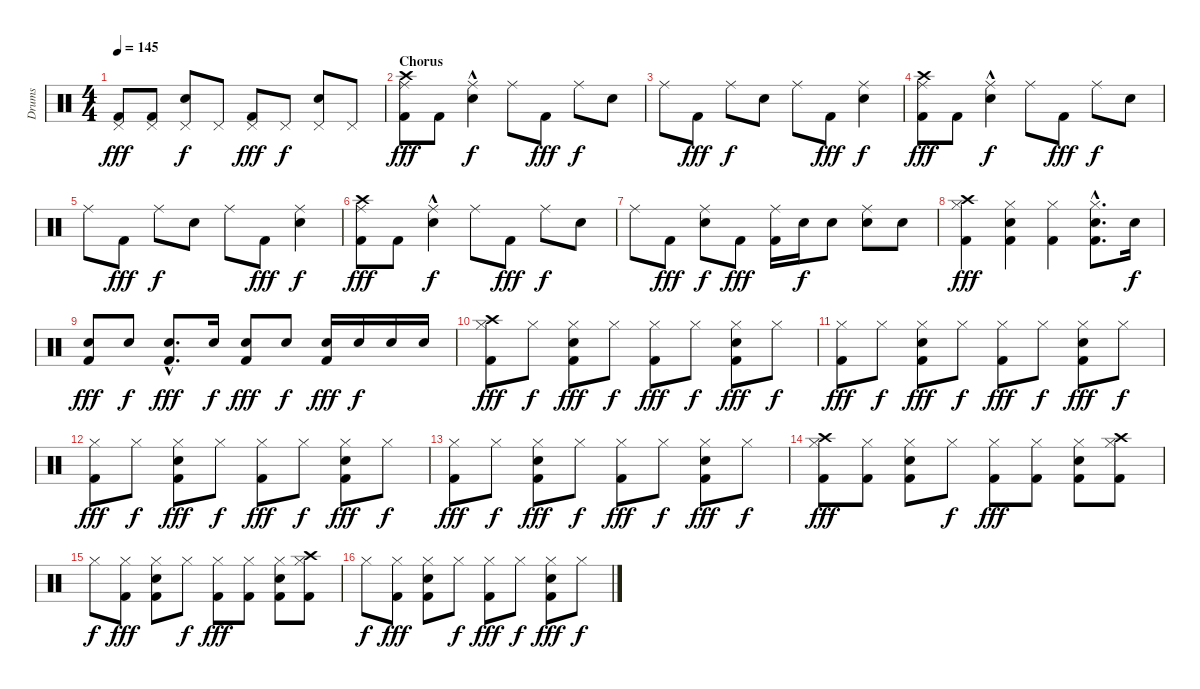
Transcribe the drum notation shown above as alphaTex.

\track ("Drums" "Drums") {instrument percussion}
\staff {score}
\articulation defaults
\ts (4 4)
\tempo 145
\clef neutral
\ks c
("Pedal Hi-Hat (hit)" "Kick (hit) 2").8{dy fff} ("Pedal Hi-Hat (hit)" "Kick (hit) 2").8 ("Pedal Hi-Hat (hit)" "Electric Snare (hit)").8{dy f} "Pedal Hi-Hat (hit)".8 ("Pedal Hi-Hat (hit)" "Kick (hit) 2").8{dy fff} "Pedal Hi-Hat (hit)".8{dy f} ("Pedal Hi-Hat (hit)" "Electric Snare (hit)").8 "Pedal Hi-Hat (hit)".8 |
\section ("" "Chorus")
("Crash high (hit)" "Ride (middle)" "Kick (hit) 2").8{dy fff} "Kick (hit) 2".8 ("Ride (middle)" "Electric Snare (hit)"{hac}).4{dy f} "Ride (middle)".8 "Kick (hit) 2".8{dy fff} "Ride (middle)".8{dy f} "Electric Snare (hit)".8 |
"Ride (middle)".8 "Kick (hit) 2".8{dy fff} "Ride (middle)".8{dy f} "Electric Snare (hit)".8 "Ride (middle)".8 "Kick (hit) 2".8{dy fff} ("Ride (middle)" "Electric Snare (hit)").4{dy f} |
("Crash high (hit)" "Ride (middle)" "Kick (hit) 2").8{dy fff} "Kick (hit) 2".8 ("Ride (middle)" "Electric Snare (hit)"{hac}).4{dy f} "Ride (middle)".8 "Kick (hit) 2".8{dy fff} "Ride (middle)".8{dy f} "Electric Snare (hit)".8 |
"Ride (middle)".8 "Kick (hit) 2".8{dy fff} "Ride (middle)".8{dy f} "Electric Snare (hit)".8 "Ride (middle)".8 "Kick (hit) 2".8{dy fff} ("Ride (middle)" "Electric Snare (hit)").4{dy f} |
("Crash high (hit)" "Ride (middle)" "Kick (hit) 2").8{dy fff} "Kick (hit) 2".8 ("Ride (middle)" "Electric Snare (hit)"{hac}).4{dy f} "Ride (middle)".8 "Kick (hit) 2".8{dy fff} "Ride (middle)".8{dy f} "Electric Snare (hit)".8 |
"Ride (middle)".8 "Kick (hit) 2".8{dy fff} ("Ride (middle)" "Electric Snare (hit)").8{dy f} "Kick (hit) 2".8{dy fff} ("Ride (middle)" "Kick (hit) 2").16 "Electric Snare (hit)".16{dy f} "Electric Snare (hit)".8 ("Ride (middle)" "Electric Snare (hit)").8 "Electric Snare (hit)".8 |
("Crash high (hit)" "Hi-Hat (closed)" "Kick (hit) 2").4{dy fff} ("Hi-Hat (closed)" "Electric Snare (hit)" "Kick (hit) 2").4 ("Hi-Hat (closed)" "Kick (hit) 2").4 ("Hi-Hat (closed)" "Electric Snare (hit)"{hac} "Kick (hit) 2"{hac}).8{d} "Electric Snare (hit)".16{dy f} |
("Electric Snare (hit)" "Kick (hit) 2").8{dy fff} "Electric Snare (hit)".8{dy f} ("Electric Snare (hit)"{hac} "Kick (hit) 2"{hac}).8{d dy fff} "Electric Snare (hit)".16{dy f} ("Electric Snare (hit)" "Kick (hit) 2").8{dy fff} "Electric Snare (hit)".8{dy f} ("Electric Snare (hit)" "Kick (hit) 2").16{dy fff} "Electric Snare (hit)".16{dy f} "Electric Snare (hit)".16 "Electric Snare (hit)".16 |
("Crash high (hit)" "Hi-Hat (closed)" "Kick (hit) 2").8{dy fff} "Hi-Hat (closed)".8{dy f} ("Hi-Hat (closed)" "Electric Snare (hit)" "Kick (hit) 2").8{dy fff} "Hi-Hat (closed)".8{dy f} ("Hi-Hat (closed)" "Kick (hit) 2").8{dy fff} "Hi-Hat (closed)".8{dy f} ("Hi-Hat (closed)" "Electric Snare (hit)" "Kick (hit) 2").8{dy fff} "Hi-Hat (closed)".8{dy f} |
("Hi-Hat (closed)" "Kick (hit) 2").8{dy fff} "Hi-Hat (closed)".8{dy f} ("Hi-Hat (closed)" "Electric Snare (hit)" "Kick (hit) 2").8{dy fff} "Hi-Hat (closed)".8{dy f} ("Hi-Hat (closed)" "Kick (hit) 2").8{dy fff} "Hi-Hat (closed)".8{dy f} ("Hi-Hat (closed)" "Electric Snare (hit)" "Kick (hit) 2").8{dy fff} "Hi-Hat (closed)".8{dy f} |
("Hi-Hat (closed)" "Kick (hit) 2").8{dy fff} "Hi-Hat (closed)".8{dy f} ("Hi-Hat (closed)" "Electric Snare (hit)" "Kick (hit) 2").8{dy fff} "Hi-Hat (closed)".8{dy f} ("Hi-Hat (closed)" "Kick (hit) 2").8{dy fff} "Hi-Hat (closed)".8{dy f} ("Hi-Hat (closed)" "Electric Snare (hit)" "Kick (hit) 2").8{dy fff} "Hi-Hat (closed)".8{dy f} |
("Hi-Hat (closed)" "Kick (hit) 2").8{dy fff} "Hi-Hat (closed)".8{dy f} ("Hi-Hat (closed)" "Electric Snare (hit)" "Kick (hit) 2").8{dy fff} "Hi-Hat (closed)".8{dy f} ("Hi-Hat (closed)" "Kick (hit) 2").8{dy fff} "Hi-Hat (closed)".8{dy f} ("Hi-Hat (closed)" "Electric Snare (hit)" "Kick (hit) 2").8{dy fff} "Hi-Hat (closed)".8{dy f} |
("Crash high (hit)" "Hi-Hat (closed)" "Kick (hit) 2").8{dy fff} ("Hi-Hat (closed)" "Kick (hit) 2").8 ("Hi-Hat (closed)" "Electric Snare (hit)" "Kick (hit) 2").8 "Hi-Hat (closed)".8{dy f} ("Hi-Hat (closed)" "Kick (hit) 2").8{dy fff} ("Hi-Hat (closed)" "Kick (hit) 2").8 ("Hi-Hat (closed)" "Electric Snare (hit)" "Kick (hit) 2").8 ("Crash high (hit)" "Hi-Hat (closed)" "Kick (hit) 2").8 |
"Hi-Hat (closed)".8{dy f} ("Hi-Hat (closed)" "Kick (hit) 2").8{dy fff} ("Hi-Hat (closed)" "Electric Snare (hit)" "Kick (hit) 2").8 "Hi-Hat (closed)".8{dy f} ("Hi-Hat (closed)" "Kick (hit) 2").8{dy fff} ("Hi-Hat (closed)" "Kick (hit) 2").8 ("Hi-Hat (closed)" "Electric Snare (hit)" "Kick (hit) 2").8 ("Crash high (hit)" "Hi-Hat (closed)" "Kick (hit) 2").8 |
"Hi-Hat (closed)".8{dy f} ("Hi-Hat (closed)" "Kick (hit) 2").8{dy fff} ("Hi-Hat (closed)" "Electric Snare (hit)" "Kick (hit) 2").8 "Hi-Hat (closed)".8{dy f} ("Hi-Hat (closed)" "Kick (hit) 2").8{dy fff} "Hi-Hat (closed)".8{dy f} ("Hi-Hat (closed)" "Electric Snare (hit)" "Kick (hit) 2").8{dy fff} "Hi-Hat (closed)".8{dy f}
